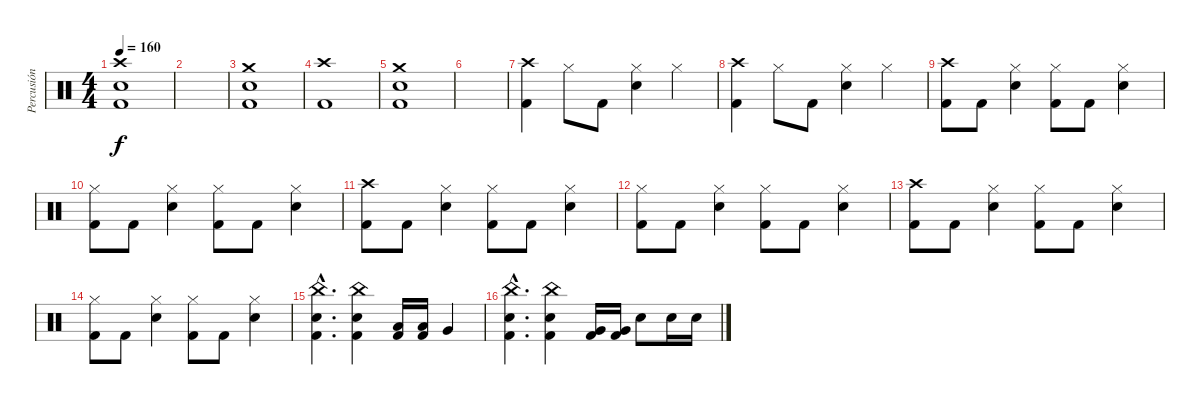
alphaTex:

\track ("Percusión" "Percusión") {instrument percussion}
\staff {score}
\articulation defaults
\ts (4 4)
\tempo 160
\clef neutral
\ks c
("Crash high (hit)" "Electric Snare (hit)" "Kick (hit) 2").1{dy f} |
|
("Crash medium (hit)" "Electric Snare (hit)" "Kick (hit) 2").1 |
("Crash high (hit)" "Kick (hit) 2").1 |
("Crash medium (hit)" "Electric Snare (hit)" "Kick (hit) 2").1 |
|
("Crash high (hit)" "Kick (hit) 2").4 "Hi-Hat (closed)".8 "Kick (hit) 2".8 ("Hi-Hat (closed)" "Electric Snare (hit)").4 "Hi-Hat (closed)".4 |
("Crash high (hit)" "Kick (hit) 2").4 "Hi-Hat (closed)".8 "Kick (hit) 2".8 ("Hi-Hat (closed)" "Electric Snare (hit)").4 "Hi-Hat (closed)".4 |
("Crash high (hit)" "Kick (hit) 2").8 "Kick (hit) 2".8 ("Hi-Hat (closed)" "Electric Snare (hit)").4 ("Hi-Hat (closed)" "Kick (hit) 2").8 "Kick (hit) 2".8 ("Hi-Hat (closed)" "Electric Snare (hit)").4 |
("Hi-Hat (closed)" "Kick (hit) 2").8 "Kick (hit) 2".8 ("Hi-Hat (closed)" "Electric Snare (hit)").4 ("Hi-Hat (closed)" "Kick (hit) 2").8 "Kick (hit) 2".8 ("Hi-Hat (closed)" "Electric Snare (hit)").4 |
("Crash high (hit)" "Kick (hit) 2").8 "Kick (hit) 2".8 ("Hi-Hat (closed)" "Electric Snare (hit)").4 ("Hi-Hat (closed)" "Kick (hit) 2").8 "Kick (hit) 2".8 ("Hi-Hat (closed)" "Electric Snare (hit)").4 |
("Hi-Hat (closed)" "Kick (hit) 2").8 "Kick (hit) 2".8 ("Hi-Hat (closed)" "Electric Snare (hit)").4 ("Hi-Hat (closed)" "Kick (hit) 2").8 "Kick (hit) 2".8 ("Hi-Hat (closed)" "Electric Snare (hit)").4 |
("Crash high (hit)" "Kick (hit) 2").8 "Kick (hit) 2".8 ("Hi-Hat (closed)" "Electric Snare (hit)").4 ("Hi-Hat (closed)" "Kick (hit) 2").8 "Kick (hit) 2".8 ("Hi-Hat (closed)" "Electric Snare (hit)").4 |
("Hi-Hat (closed)" "Kick (hit) 2").8 "Kick (hit) 2".8 ("Hi-Hat (closed)" "Electric Snare (hit)").4 ("Hi-Hat (closed)" "Kick (hit) 2").8 "Kick (hit) 2".8 ("Hi-Hat (closed)" "Electric Snare (hit)").4 |
("China (hit)"{hac} "Electric Snare (hit)"{hac} "Kick (hit) 2"{hac}).4{d} ("China (hit)" "Electric Snare (hit)" "Kick (hit) 2").4 ("Low Tom (hit)" "Kick (hit) 2").16 ("Low Tom (hit)" "Kick (hit) 2").16 "Very Low Tom (hit)".4 |
("China (hit)"{hac} "Electric Snare (hit)"{hac} "Kick (hit) 2"{hac}).4{d} ("China (hit)" "Electric Snare (hit)" "Kick (hit) 2").4 ("Very Low Tom (hit)" "Kick (hit) 2").16 ("Very Low Tom (hit)" "Kick (hit) 2").16 "Electric Snare (hit)".8 "Electric Snare (hit)".16 "Electric Snare (hit)".16
